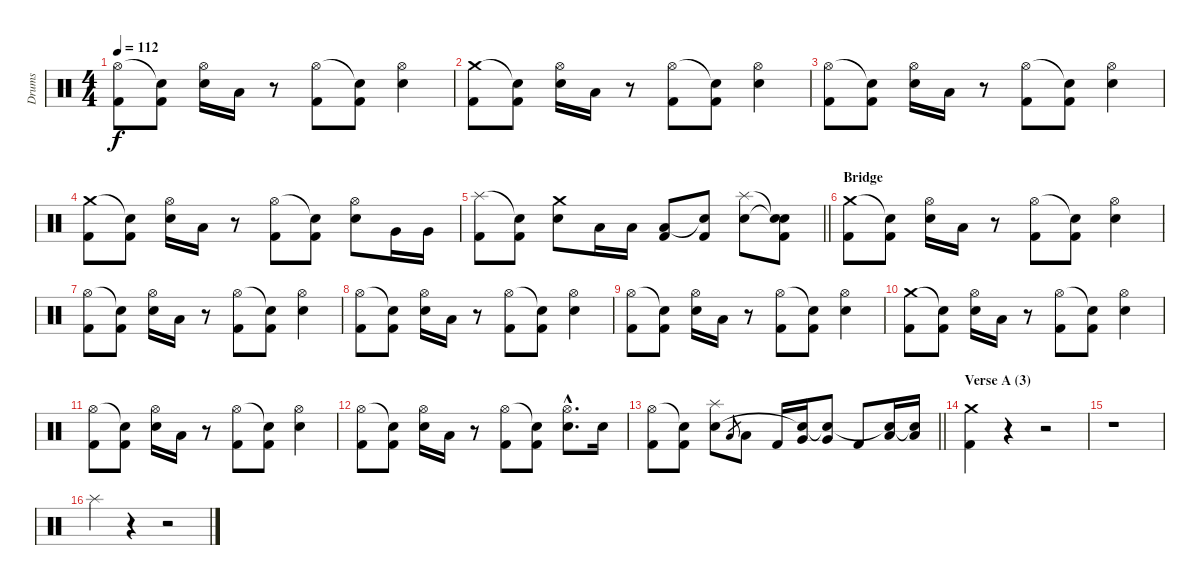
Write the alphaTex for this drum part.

\track ("Drums" "Drums") {instrument percussion}
\staff {score}
\articulation defaults
\ts (4 4)
\tempo 112
\clef neutral
\ks c
("Hi-Hat (open)" "Kick (hit) 2").8{dy f} ("Snare (hit)"{t} "Kick (hit) 2").8 ("Hi-Hat (open)" "Electric Snare (hit)").16 "Low Floor Tom (hit)".16 r.8 ("Hi-Hat (open)" "Kick (hit) 2").8 ("Snare (hit)"{t} "Kick (hit) 2").8 ("Hi-Hat (open)" "Electric Snare (hit)").4 |
("Crash medium (hit)" "Kick (hit) 2").8 ("Snare (hit)"{t} "Kick (hit) 2").8 ("Hi-Hat (open)" "Electric Snare (hit)").16 "Low Floor Tom (hit)".16 r.8 ("Hi-Hat (open)" "Kick (hit) 2").8 ("Snare (hit)"{t} "Kick (hit) 2").8 ("Hi-Hat (open)" "Electric Snare (hit)").4 |
("Hi-Hat (open)" "Kick (hit) 2").8 ("Snare (hit)"{t} "Kick (hit) 2").8 ("Hi-Hat (open)" "Electric Snare (hit)").16 "Low Floor Tom (hit)".16 r.8 ("Hi-Hat (open)" "Kick (hit) 2").8 ("Snare (hit)"{t} "Kick (hit) 2").8 ("Hi-Hat (open)" "Electric Snare (hit)").4 |
("Crash medium (hit)" "Kick (hit) 2").8 ("Snare (hit)"{t} "Kick (hit) 2").8 ("Hi-Hat (open)" "Electric Snare (hit)").16 "Low Floor Tom (hit)".16 r.8 ("Hi-Hat (open)" "Kick (hit) 2").8 ("Snare (hit)"{t} "Kick (hit) 2").8 ("Hi-Hat (open)" "Electric Snare (hit)").8 "Very Low Tom (hit)".16 "Very Low Tom (hit)".16 |
\barLineRight lightlight
("Splash (hit)" "Kick (hit) 2").8 ("Snare (hit)"{t} "Kick (hit) 2").8 ("Crash medium (hit)" "Electric Snare (hit)").8 "Low Tom (hit)".16 "Low Tom (hit)".16 ("Low Floor Tom (hit)" "Kick (hit) 2").8 ("Snare (hit)"{t} "Kick (hit) 2").8 ("Splash (hit)" "Electric Snare (hit)").8 ("Snare (hit)"{t} "Snare (hit)"{t} "Kick (hit) 2").8 |
\section ("" "Bridge")
("Crash medium (hit)" "Kick (hit) 2").8 ("Snare (hit)"{t} "Kick (hit) 2").8 ("Hi-Hat (open)" "Electric Snare (hit)").16 "Low Floor Tom (hit)".16 r.8 ("Hi-Hat (open)" "Kick (hit) 2").8 ("Snare (hit)"{t} "Kick (hit) 2").8 ("Hi-Hat (open)" "Electric Snare (hit)").4 |
("Hi-Hat (open)" "Kick (hit) 2").8 ("Snare (hit)"{t} "Kick (hit) 2").8 ("Hi-Hat (open)" "Electric Snare (hit)").16 "Low Floor Tom (hit)".16 r.8 ("Hi-Hat (open)" "Kick (hit) 2").8 ("Snare (hit)"{t} "Kick (hit) 2").8 ("Hi-Hat (open)" "Electric Snare (hit)").4 |
("Hi-Hat (open)" "Kick (hit) 2").8 ("Snare (hit)"{t} "Kick (hit) 2").8 ("Hi-Hat (open)" "Electric Snare (hit)").16 "Low Floor Tom (hit)".16 r.8 ("Hi-Hat (open)" "Kick (hit) 2").8 ("Snare (hit)"{t} "Kick (hit) 2").8 ("Hi-Hat (open)" "Electric Snare (hit)").4 |
("Hi-Hat (open)" "Kick (hit) 2").8 ("Snare (hit)"{t} "Kick (hit) 2").8 ("Hi-Hat (open)" "Electric Snare (hit)").16 "Low Floor Tom (hit)".16 r.8 ("Hi-Hat (open)" "Kick (hit) 2").8 ("Snare (hit)"{t} "Kick (hit) 2").8 ("Hi-Hat (open)" "Electric Snare (hit)").4 |
("Crash medium (hit)" "Kick (hit) 2").8 ("Snare (hit)"{t} "Kick (hit) 2").8 ("Hi-Hat (open)" "Electric Snare (hit)").16 "Low Floor Tom (hit)".16 r.8 ("Hi-Hat (open)" "Kick (hit) 2").8 ("Snare (hit)"{t} "Kick (hit) 2").8 ("Hi-Hat (open)" "Electric Snare (hit)").4 |
("Hi-Hat (open)" "Kick (hit) 2").8 ("Snare (hit)"{t} "Kick (hit) 2").8 ("Hi-Hat (open)" "Electric Snare (hit)").16 "Low Floor Tom (hit)".16 r.8 ("Hi-Hat (open)" "Kick (hit) 2").8 ("Snare (hit)"{t} "Kick (hit) 2").8 ("Hi-Hat (open)" "Electric Snare (hit)").4 |
("Hi-Hat (open)" "Kick (hit) 2").8 ("Snare (hit)"{t} "Kick (hit) 2").8 ("Hi-Hat (open)" "Electric Snare (hit)").16 "Low Floor Tom (hit)".16 r.8 ("Hi-Hat (open)" "Kick (hit) 2").8 ("Snare (hit)"{t} "Kick (hit) 2").8 ("Hi-Hat (open)"{hac} "Electric Snare (hit)"{hac}).8{d} "Electric Snare (hit)".16 |
\barLineRight lightlight
("Hi-Hat (open)" "Kick (hit) 2").8 ("Snare (hit)"{t} "Kick (hit) 2").8 ("Splash (hit)" "Electric Snare (hit)").8 "Low Tom (hit)".8{gr} "Low Tom (hit)".8 "Kick (hit) 2".16 ("Very Low Tom (hit)" "Snare (hit)"{t}).16 ("Very Low Tom (hit)" "Snare (hit)"{t}).8 "Kick (hit) 2".8 ("Low Floor Tom (hit)" "Snare (hit)"{t}).16 ("Low Floor Tom (hit)" "Snare (hit)"{t}).16 |
\section ("" "Verse A (3)")
("Crash medium (hit)" "Kick (hit) 2").4 r.4 r.2 |
r.1 |
"Splash (hit)".4 r.4 r.2
